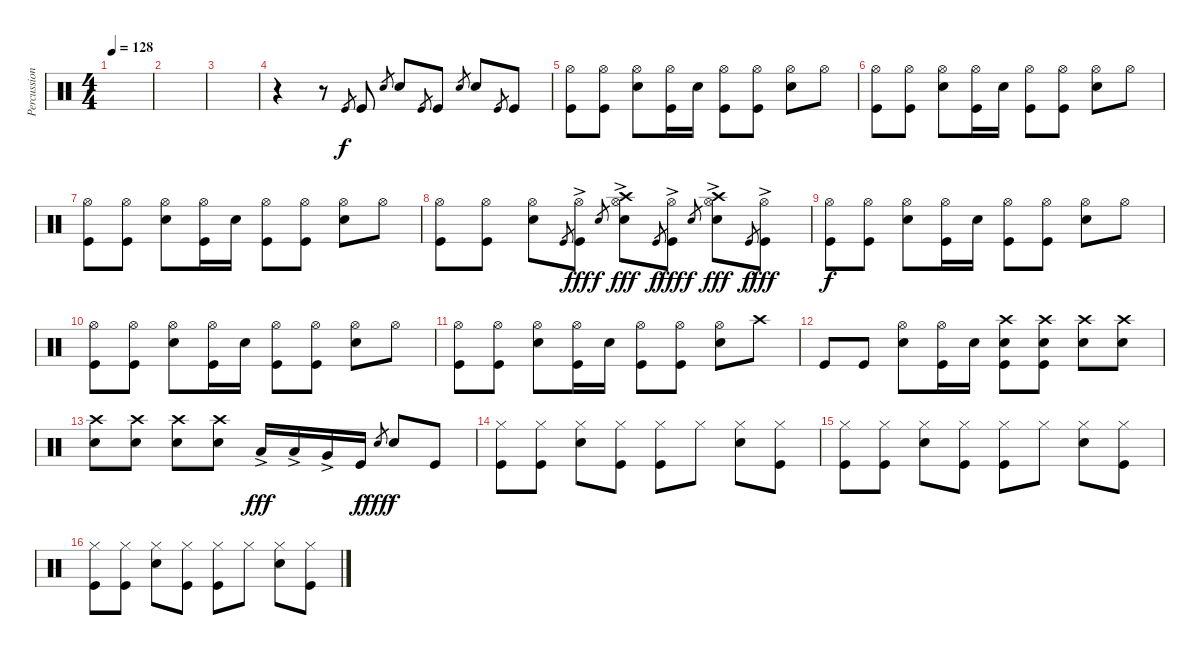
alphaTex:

\track ("Percussions" "Percussion") {instrument percussion}
\staff {score}
\articulation defaults
\ts (4 4)
\tempo 128
\clef neutral
\ks c
|
|
|
r.4 r.8 "Kick (hit)".8{gr} "Kick (hit)".8 "Electric Snare (hit)".8{gr} "Electric Snare (hit)".8 "Kick (hit)".8{gr} "Kick (hit)".8 "Electric Snare (hit)".8{gr} "Electric Snare (hit)".8 "Kick (hit)".8{gr} "Kick (hit)".8 |
("Hi-Hat (open)" "Kick (hit)").8 ("Hi-Hat (open)" "Kick (hit)").8 ("Hi-Hat (open)" "Electric Snare (hit)").8 ("Hi-Hat (open)" "Kick (hit)").16 "Electric Snare (hit)".16 ("Hi-Hat (open)" "Kick (hit)").8 ("Hi-Hat (open)" "Kick (hit)").8 ("Hi-Hat (open)" "Electric Snare (hit)").8 "Hi-Hat (open)".8 |
("Hi-Hat (open)" "Kick (hit)").8 ("Hi-Hat (open)" "Kick (hit)").8 ("Hi-Hat (open)" "Electric Snare (hit)").8 ("Hi-Hat (open)" "Kick (hit)").16 "Electric Snare (hit)".16 ("Hi-Hat (open)" "Kick (hit)").8 ("Hi-Hat (open)" "Kick (hit)").8 ("Hi-Hat (open)" "Electric Snare (hit)").8 "Hi-Hat (open)".8 |
("Hi-Hat (open)" "Kick (hit)").8 ("Hi-Hat (open)" "Kick (hit)").8 ("Hi-Hat (open)" "Electric Snare (hit)").8 ("Hi-Hat (open)" "Kick (hit)").16 "Electric Snare (hit)".16 ("Hi-Hat (open)" "Kick (hit)").8 ("Hi-Hat (open)" "Kick (hit)").8 ("Hi-Hat (open)" "Electric Snare (hit)").8 "Hi-Hat (open)".8 |
("Hi-Hat (open)" "Kick (hit)").8 ("Hi-Hat (open)" "Kick (hit)").8 ("Hi-Hat (open)" "Electric Snare (hit)").8 "Kick (hit)".8{gr} ("Hi-Hat (open)" "Kick (hit)"{ac}).8{dy fff} "Electric Snare (hit)".8{gr dy f} ("Hi-Hat (open)" "Crash high (hit)" "Electric Snare (hit)"{ac}).8{dy fff} "Kick (hit)".8{gr dy f} ("Hi-Hat (open)" "Kick (hit)"{ac}).8{dy fff} "Electric Snare (hit)".8{gr dy f} ("Hi-Hat (open)" "Crash high (hit)" "Electric Snare (hit)"{ac}).8{dy fff} "Kick (hit)".8{gr dy f} ("Hi-Hat (open)" "Kick (hit)"{ac}).8{dy fff} |
("Hi-Hat (open)" "Kick (hit)").8{dy f} ("Hi-Hat (open)" "Kick (hit)").8 ("Hi-Hat (open)" "Electric Snare (hit)").8 ("Hi-Hat (open)" "Kick (hit)").16 "Electric Snare (hit)".16 ("Hi-Hat (open)" "Kick (hit)").8 ("Hi-Hat (open)" "Kick (hit)").8 ("Hi-Hat (open)" "Electric Snare (hit)").8 "Hi-Hat (open)".8 |
("Hi-Hat (open)" "Kick (hit)").8 ("Hi-Hat (open)" "Kick (hit)").8 ("Hi-Hat (open)" "Electric Snare (hit)").8 ("Hi-Hat (open)" "Kick (hit)").16 "Electric Snare (hit)".16 ("Hi-Hat (open)" "Kick (hit)").8 ("Hi-Hat (open)" "Kick (hit)").8 ("Hi-Hat (open)" "Electric Snare (hit)").8 "Hi-Hat (open)".8 |
("Hi-Hat (open)" "Kick (hit)").8 ("Hi-Hat (open)" "Kick (hit)").8 ("Hi-Hat (open)" "Electric Snare (hit)").8 ("Hi-Hat (open)" "Kick (hit)").16 "Electric Snare (hit)".16 ("Hi-Hat (open)" "Kick (hit)").8 ("Hi-Hat (open)" "Kick (hit)").8 ("Hi-Hat (open)" "Electric Snare (hit)").8 "Crash high (hit)".8 |
"Kick (hit)".8 "Kick (hit)".8 ("Hi-Hat (open)" "Electric Snare (hit)").8 ("Hi-Hat (open)" "Kick (hit)").16 "Electric Snare (hit)".16 ("Crash high (hit)" "Electric Snare (hit)" "Kick (hit)").8 ("Crash high (hit)" "Electric Snare (hit)" "Kick (hit)").8 ("Crash high (hit)" "Electric Snare (hit)").8 ("Crash high (hit)" "Electric Snare (hit)").8 |
("Crash high (hit)" "Electric Snare (hit)").8 ("Crash high (hit)" "Electric Snare (hit)").8 ("Crash high (hit)" "Electric Snare (hit)").8 ("Crash high (hit)" "Electric Snare (hit)").8 "Low Tom (hit)"{ac}.16{dy fff} "Low Tom (hit)"{ac}.16 "Very Low Tom (hit)"{ac}.16 "Kick (hit)".16{dy f} "Electric Snare (hit)".8{gr dy fff} "Electric Snare (hit)".8{dy f} "Kick (hit)".8 |
("Hi-Hat (closed)" "Kick (hit)").8 ("Hi-Hat (closed)" "Kick (hit)").8 ("Hi-Hat (closed)" "Electric Snare (hit)").8 ("Hi-Hat (closed)" "Kick (hit)").8 ("Hi-Hat (closed)" "Kick (hit)").8 "Hi-Hat (closed)".8 ("Hi-Hat (closed)" "Electric Snare (hit)").8 ("Hi-Hat (closed)" "Kick (hit)").8 |
("Hi-Hat (closed)" "Kick (hit)").8 ("Hi-Hat (closed)" "Kick (hit)").8 ("Hi-Hat (closed)" "Electric Snare (hit)").8 ("Hi-Hat (closed)" "Kick (hit)").8 ("Hi-Hat (closed)" "Kick (hit)").8 "Hi-Hat (closed)".8 ("Hi-Hat (closed)" "Electric Snare (hit)").8 ("Hi-Hat (closed)" "Kick (hit)").8 |
("Hi-Hat (closed)" "Kick (hit)").8 ("Hi-Hat (closed)" "Kick (hit)").8 ("Hi-Hat (closed)" "Electric Snare (hit)").8 ("Hi-Hat (closed)" "Kick (hit)").8 ("Hi-Hat (closed)" "Kick (hit)").8 "Hi-Hat (closed)".8 ("Hi-Hat (closed)" "Electric Snare (hit)").8 ("Hi-Hat (closed)" "Kick (hit)").8
